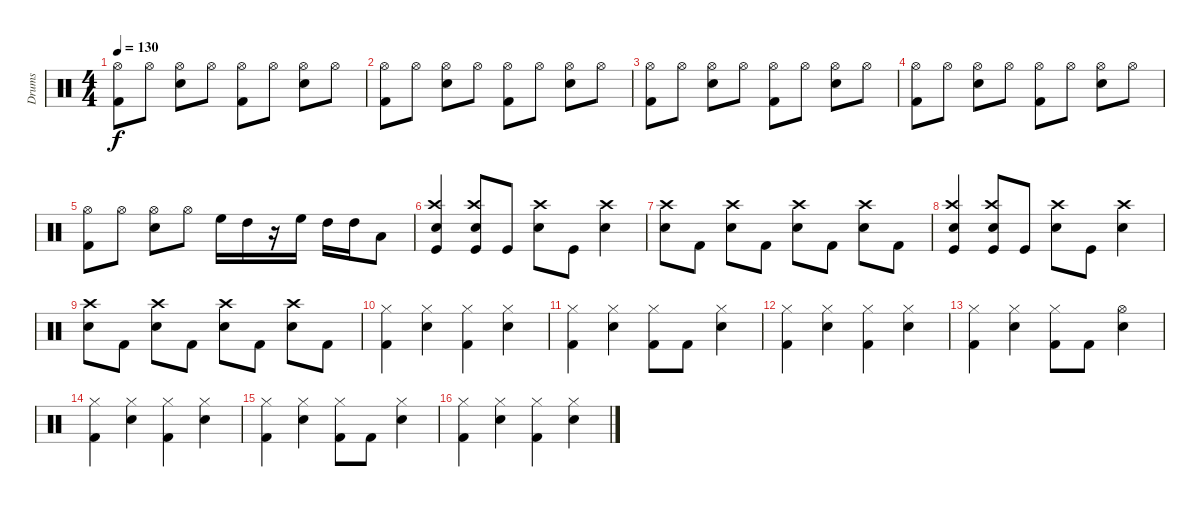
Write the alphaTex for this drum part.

\track ("Drums" "Drums") {instrument percussion}
\staff {score}
\articulation defaults
\ts (4 4)
\tempo 130
\clef neutral
\ks c
("Hi-Hat (open)" "Kick (hit) 2").8{dy f} "Hi-Hat (open)".8 ("Hi-Hat (open)" "Snare (hit) 2").8 "Hi-Hat (open)".8 ("Hi-Hat (open)" "Kick (hit) 2").8 "Hi-Hat (open)".8 ("Hi-Hat (open)" "Snare (hit) 2").8 "Hi-Hat (open)".8 |
("Hi-Hat (open)" "Kick (hit) 2").8 "Hi-Hat (open)".8 ("Hi-Hat (open)" "Snare (hit) 2").8 "Hi-Hat (open)".8 ("Hi-Hat (open)" "Kick (hit) 2").8 "Hi-Hat (open)".8 ("Hi-Hat (open)" "Snare (hit) 2").8 "Hi-Hat (open)".8 |
("Hi-Hat (open)" "Kick (hit) 2").8 "Hi-Hat (open)".8 ("Hi-Hat (open)" "Snare (hit) 2").8 "Hi-Hat (open)".8 ("Hi-Hat (open)" "Kick (hit) 2").8 "Hi-Hat (open)".8 ("Hi-Hat (open)" "Snare (hit) 2").8 "Hi-Hat (open)".8 |
("Hi-Hat (open)" "Kick (hit) 2").8 "Hi-Hat (open)".8 ("Hi-Hat (open)" "Snare (hit) 2").8 "Hi-Hat (open)".8 ("Hi-Hat (open)" "Kick (hit) 2").8 "Hi-Hat (open)".8 ("Hi-Hat (open)" "Snare (hit) 2").8 "Hi-Hat (open)".8 |
("Hi-Hat (open)" "Kick (hit) 2").8 "Hi-Hat (open)".8 ("Hi-Hat (open)" "Snare (hit) 2").8 "Hi-Hat (open)".8 "High Floor Tom (hit)".16 "High Tom (hit)".16 r.16 "High Floor Tom (hit)".16 "High Tom (hit)".16 "High Tom (hit)".16 "Low Tom (hit)".8 |
("Crash high (hit)" "Snare (hit) 2" "Kick (hit)").4 ("Crash high (hit)" "Snare (hit) 2" "Kick (hit)").8 "Kick (hit)".8 ("Crash high (hit)" "Snare (hit) 2").8 "Kick (hit)".8 ("Crash high (hit)" "Snare (hit) 2").4 |
("Crash high (hit)" "Snare (hit) 2").8 "Kick (hit) 2".8 ("Crash high (hit)" "Snare (hit) 2").8 "Kick (hit) 2".8 ("Crash high (hit)" "Snare (hit) 2").8 "Kick (hit) 2".8 ("Crash high (hit)" "Snare (hit) 2").8 "Kick (hit) 2".8 |
("Crash high (hit)" "Snare (hit) 2" "Kick (hit)").4 ("Crash high (hit)" "Snare (hit) 2" "Kick (hit)").8 "Kick (hit)".8 ("Crash high (hit)" "Snare (hit) 2").8 "Kick (hit)".8 ("Crash high (hit)" "Snare (hit) 2").4 |
("Crash high (hit)" "Snare (hit) 2").8 "Kick (hit) 2".8 ("Crash high (hit)" "Snare (hit) 2").8 "Kick (hit) 2".8 ("Crash high (hit)" "Snare (hit) 2").8 "Kick (hit) 2".8 ("Crash high (hit)" "Snare (hit) 2").8 "Kick (hit) 2".8 |
("Hi-Hat (closed)" "Kick (hit) 2").4 ("Hi-Hat (closed)" "Snare (hit) 2").4 ("Hi-Hat (closed)" "Kick (hit) 2").4 ("Hi-Hat (closed)" "Snare (hit) 2").4 |
("Hi-Hat (closed)" "Kick (hit) 2").4 ("Hi-Hat (closed)" "Snare (hit) 2").4 ("Hi-Hat (closed)" "Kick (hit) 2").8 "Kick (hit) 2".8 ("Hi-Hat (closed)" "Snare (hit) 2").4 |
("Hi-Hat (closed)" "Kick (hit) 2").4 ("Hi-Hat (closed)" "Snare (hit) 2").4 ("Hi-Hat (closed)" "Kick (hit) 2").4 ("Hi-Hat (closed)" "Snare (hit) 2").4 |
("Hi-Hat (closed)" "Kick (hit) 2").4 ("Hi-Hat (closed)" "Snare (hit) 2").4 ("Hi-Hat (closed)" "Kick (hit) 2").8 "Kick (hit) 2".8 ("Hi-Hat (open)" "Snare (hit) 2").4 |
("Hi-Hat (closed)" "Kick (hit) 2").4 ("Hi-Hat (closed)" "Snare (hit) 2").4 ("Hi-Hat (closed)" "Kick (hit) 2").4 ("Hi-Hat (closed)" "Snare (hit) 2").4 |
("Hi-Hat (closed)" "Kick (hit) 2").4 ("Hi-Hat (closed)" "Snare (hit) 2").4 ("Hi-Hat (closed)" "Kick (hit) 2").8 "Kick (hit) 2".8 ("Hi-Hat (closed)" "Snare (hit) 2").4 |
("Hi-Hat (closed)" "Kick (hit) 2").4 ("Hi-Hat (closed)" "Snare (hit) 2").4 ("Hi-Hat (closed)" "Kick (hit) 2").4 ("Hi-Hat (closed)" "Snare (hit) 2").4
